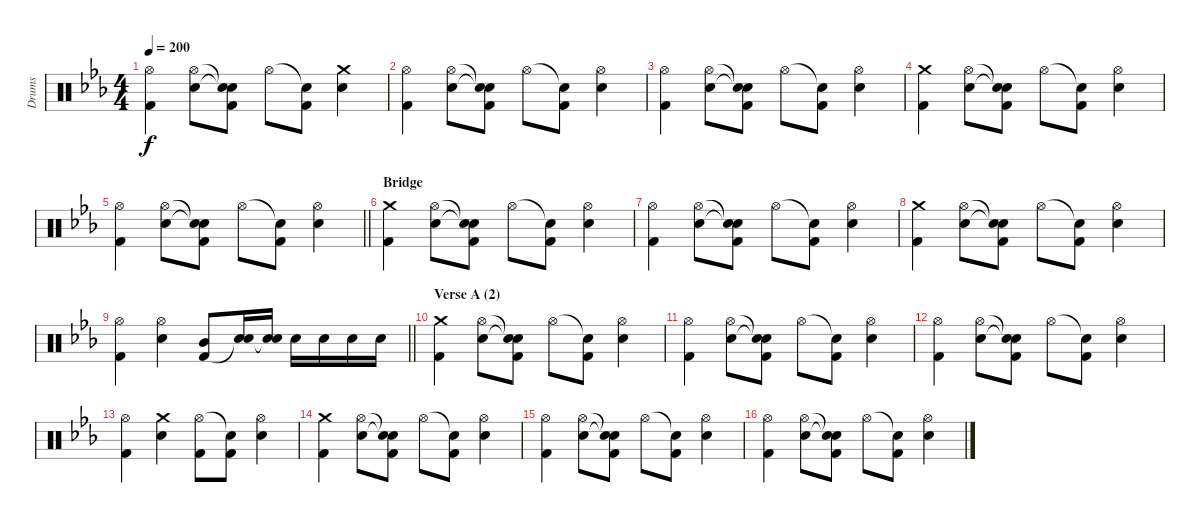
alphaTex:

\track ("Drums" "Drums") {instrument percussion}
\staff {score}
\articulation defaults
\ts (4 4)
\tempo 200
\clef neutral
\ks cminor
("Hi-Hat (open)" "Kick (hit) 2").4{dy f} ("Hi-Hat (open)" "Electric Snare (hit)").8 ("Snare (hit)"{t} "Snare (hit)"{t} "Kick (hit) 2").8 "Hi-Hat (open)".8 ("Snare (hit)"{t} "Kick (hit) 2").8 ("Crash medium (hit)" "Electric Snare (hit)").4 |
("Hi-Hat (open)" "Kick (hit) 2").4 ("Hi-Hat (open)" "Electric Snare (hit)").8 ("Snare (hit)"{t} "Snare (hit)"{t} "Kick (hit) 2").8 "Hi-Hat (open)".8 ("Snare (hit)"{t} "Kick (hit) 2").8 ("Hi-Hat (open)" "Electric Snare (hit)").4 |
("Hi-Hat (open)" "Kick (hit) 2").4 ("Hi-Hat (open)" "Electric Snare (hit)").8 ("Snare (hit)"{t} "Snare (hit)"{t} "Kick (hit) 2").8 "Hi-Hat (open)".8 ("Snare (hit)"{t} "Kick (hit) 2").8 ("Hi-Hat (open)" "Electric Snare (hit)").4 |
("Crash medium (hit)" "Kick (hit) 2").4 ("Hi-Hat (open)" "Electric Snare (hit)").8 ("Snare (hit)"{t} "Snare (hit)"{t} "Kick (hit) 2").8 "Hi-Hat (open)".8 ("Snare (hit)"{t} "Kick (hit) 2").8 ("Hi-Hat (open)" "Electric Snare (hit)").4 |
\barLineRight lightlight
("Hi-Hat (open)" "Kick (hit) 2").4 ("Hi-Hat (open)" "Electric Snare (hit)").8 ("Snare (hit)"{t} "Snare (hit)"{t} "Kick (hit) 2").8 "Hi-Hat (open)".8 ("Snare (hit)"{t} "Kick (hit) 2").8 ("Hi-Hat (open)" "Electric Snare (hit)").4 |
\section ("" "Bridge")
("Crash medium (hit)" "Kick (hit) 2").4 ("Hi-Hat (open)" "Electric Snare (hit)").8 ("Snare (hit)"{t} "Snare (hit)"{t} "Kick (hit) 2").8 "Hi-Hat (open)".8 ("Snare (hit)"{t} "Kick (hit) 2").8 ("Hi-Hat (open)" "Electric Snare (hit)").4 |
("Hi-Hat (open)" "Kick (hit) 2").4 ("Hi-Hat (open)" "Electric Snare (hit)").8 ("Snare (hit)"{t} "Snare (hit)"{t} "Kick (hit) 2").8 "Hi-Hat (open)".8 ("Snare (hit)"{t} "Kick (hit) 2").8 ("Hi-Hat (open)" "Electric Snare (hit)").4 |
("Crash medium (hit)" "Kick (hit) 2").4 ("Hi-Hat (open)" "Electric Snare (hit)").8 ("Snare (hit)"{t} "Snare (hit)"{t} "Kick (hit) 2").8 "Hi-Hat (open)".8 ("Snare (hit)"{t} "Kick (hit) 2").8 ("Hi-Hat (open)" "Electric Snare (hit)").4 |
\barLineRight lightlight
("Hi-Hat (open)" "Kick (hit) 2").4 ("Hi-Hat (open)" "Electric Snare (hit)").4 ("Mid Tom (hit)" "Kick (hit) 2").8 ("Electric Snare (hit)" "Snare (hit)"{t}).16 ("Electric Snare (hit)" "Snare (hit)"{t}).16 "Electric Snare (hit)".16 "Electric Snare (hit)".16 "Electric Snare (hit)".16 "Electric Snare (hit)".16 |
\section ("" "Verse A (2)")
("Crash medium (hit)" "Kick (hit) 2").4 ("Hi-Hat (open)" "Electric Snare (hit)").8 ("Snare (hit)"{t} "Snare (hit)"{t} "Kick (hit) 2").8 "Hi-Hat (open)".8 ("Snare (hit)"{t} "Kick (hit) 2").8 ("Hi-Hat (open)" "Electric Snare (hit)").4 |
("Hi-Hat (open)" "Kick (hit) 2").4 ("Hi-Hat (open)" "Electric Snare (hit)").8 ("Snare (hit)"{t} "Snare (hit)"{t} "Kick (hit) 2").8 "Hi-Hat (open)".8 ("Snare (hit)"{t} "Kick (hit) 2").8 ("Hi-Hat (open)" "Electric Snare (hit)").4 |
("Hi-Hat (open)" "Kick (hit) 2").4 ("Hi-Hat (open)" "Electric Snare (hit)").8 ("Snare (hit)"{t} "Snare (hit)"{t} "Kick (hit) 2").8 "Hi-Hat (open)".8 ("Snare (hit)"{t} "Kick (hit) 2").8 ("Hi-Hat (open)" "Electric Snare (hit)").4 |
("Hi-Hat (open)" "Kick (hit) 2").4 ("Crash medium (hit)" "Electric Snare (hit)").4 ("Hi-Hat (open)" "Kick (hit) 2").8 ("Snare (hit)"{t} "Kick (hit) 2").8 ("Hi-Hat (open)" "Electric Snare (hit)").4 |
("Crash medium (hit)" "Kick (hit) 2").4 ("Hi-Hat (open)" "Electric Snare (hit)").8 ("Snare (hit)"{t} "Snare (hit)"{t} "Kick (hit) 2").8 "Hi-Hat (open)".8 ("Snare (hit)"{t} "Kick (hit) 2").8 ("Hi-Hat (open)" "Electric Snare (hit)").4 |
("Hi-Hat (open)" "Kick (hit) 2").4 ("Hi-Hat (open)" "Electric Snare (hit)").8 ("Snare (hit)"{t} "Snare (hit)"{t} "Kick (hit) 2").8 "Hi-Hat (open)".8 ("Snare (hit)"{t} "Kick (hit) 2").8 ("Hi-Hat (open)" "Electric Snare (hit)").4 |
("Hi-Hat (open)" "Kick (hit) 2").4 ("Hi-Hat (open)" "Electric Snare (hit)").8 ("Snare (hit)"{t} "Snare (hit)"{t} "Kick (hit) 2").8 "Hi-Hat (open)".8 ("Snare (hit)"{t} "Kick (hit) 2").8 ("Hi-Hat (open)" "Electric Snare (hit)").4
